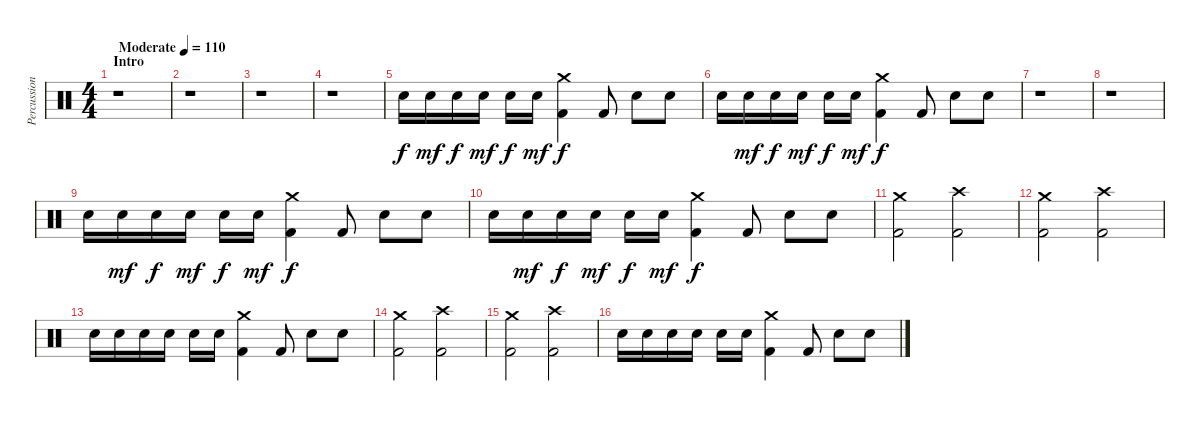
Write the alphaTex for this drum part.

\track ("Percussion" "Percussion") {instrument percussion}
\staff {score}
\articulation defaults
\ts (4 4)
\section ("" "Intro")
\tempo (110 "Moderate")
\clef neutral
\ks c
r.1{dy f} |
r.1 |
r.1 |
r.1 |
"Electric Snare (hit)".16 "Electric Snare (hit)".16{dy mf} "Electric Snare (hit)".16{dy f} "Electric Snare (hit)".16{dy mf} "Electric Snare (hit)".16{dy f} "Electric Snare (hit)".16{dy mf} ("Crash medium (hit)" "Kick (hit) 2").4{dy f} "Kick (hit) 2".8 "Electric Snare (hit)".8 "Electric Snare (hit)".8 |
"Electric Snare (hit)".16 "Electric Snare (hit)".16{dy mf} "Electric Snare (hit)".16{dy f} "Electric Snare (hit)".16{dy mf} "Electric Snare (hit)".16{dy f} "Electric Snare (hit)".16{dy mf} ("Crash medium (hit)" "Kick (hit) 2").4{dy f} "Kick (hit) 2".8 "Electric Snare (hit)".8 "Electric Snare (hit)".8 |
r.1 |
r.1 |
"Electric Snare (hit)".16 "Electric Snare (hit)".16{dy mf} "Electric Snare (hit)".16{dy f} "Electric Snare (hit)".16{dy mf} "Electric Snare (hit)".16{dy f} "Electric Snare (hit)".16{dy mf} ("Crash medium (hit)" "Kick (hit) 2").4{dy f} "Kick (hit) 2".8 "Electric Snare (hit)".8 "Electric Snare (hit)".8 |
"Electric Snare (hit)".16 "Electric Snare (hit)".16{dy mf} "Electric Snare (hit)".16{dy f} "Electric Snare (hit)".16{dy mf} "Electric Snare (hit)".16{dy f} "Electric Snare (hit)".16{dy mf} ("Crash medium (hit)" "Kick (hit) 2").4{dy f} "Kick (hit) 2".8 "Electric Snare (hit)".8 "Electric Snare (hit)".8 |
("Crash medium (hit)" "Kick (hit) 2").2 ("Crash high (hit)" "Kick (hit) 2").2 |
("Crash medium (hit)" "Kick (hit) 2").2 ("Crash high (hit)" "Kick (hit) 2").2 |
"Electric Snare (hit)".16 "Electric Snare (hit)".16 "Electric Snare (hit)".16 "Electric Snare (hit)".16 "Electric Snare (hit)".16 "Electric Snare (hit)".16 ("Crash medium (hit)" "Kick (hit) 2").4 "Kick (hit) 2".8 "Electric Snare (hit)".8 "Electric Snare (hit)".8 |
("Crash medium (hit)" "Kick (hit) 2").2 ("Crash high (hit)" "Kick (hit) 2").2 |
("Crash medium (hit)" "Kick (hit) 2").2 ("Crash high (hit)" "Kick (hit) 2").2 |
"Electric Snare (hit)".16 "Electric Snare (hit)".16 "Electric Snare (hit)".16 "Electric Snare (hit)".16 "Electric Snare (hit)".16 "Electric Snare (hit)".16 ("Crash medium (hit)" "Kick (hit) 2").4 "Kick (hit) 2".8 "Electric Snare (hit)".8 "Electric Snare (hit)".8
